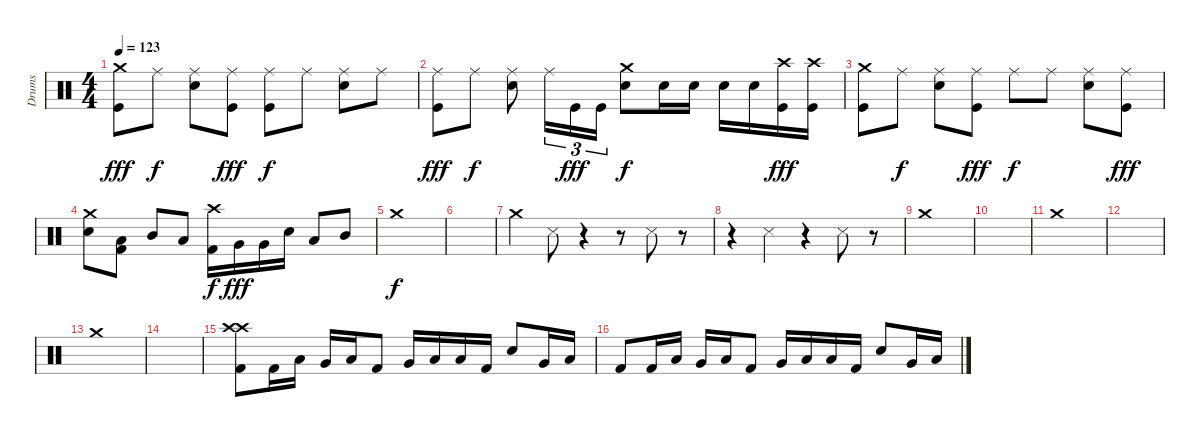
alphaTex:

\track ("Drums" "Drums") {instrument percussion}
\staff {score}
\articulation defaults
\ts (4 4)
\tempo 123
\clef neutral
\ks c
("Crash medium (hit)" "Kick (hit)").8{dy fff} "Ride (middle)".8{dy f} ("Ride (middle)" "Snare (hit) 2").8 ("Ride (middle)" "Kick (hit)").8{dy fff} ("Ride (middle)" "Kick (hit)").8{dy f} "Ride (middle)".8 ("Ride (middle)" "Snare (hit) 2").8 "Ride (middle)".8 |
("Ride (middle)" "Kick (hit)").8{dy fff} "Ride (middle)".8{dy f} ("Ride (middle)" "Snare (hit) 2").8 "Ride (middle)".16{tu (3 2)} "Kick (hit)".16{tu (3 2) dy fff} "Kick (hit)".16{tu (3 2)} ("Crash medium (hit)" "Electric Snare (hit)").8{dy f} "Electric Snare (hit)".16 "Electric Snare (hit)".16 "Electric Snare (hit)".16 "Electric Snare (hit)".16 ("Crash high (hit)" "Kick (hit)").16{dy fff} ("Crash high (hit)" "Kick (hit)").16 |
("Crash medium (hit)" "Kick (hit)").8 "Ride (middle)".8{dy f} ("Ride (middle)" "Electric Snare (hit)").8 ("Ride (middle)" "Kick (hit)").8{dy fff} "Ride (middle)".8{dy f} "Ride (middle)".8 ("Ride (middle)" "Electric Snare (hit)").8 ("Ride (middle)" "Kick (hit)").8{dy fff} |
("Crash medium (hit)" "Snare (hit) 2").8 ("Low Tom (hit)" "Kick (hit) 2").8 "Mid Tom (hit)".8 "Low Tom (hit)".8 ("Crash high (hit)" "Kick (hit) 2").16{dy f} "Very Low Tom (hit)".16{dy fff} "Very Low Tom (hit)".16 "Snare (hit) 2".16 "Low Tom (hit)".8 "Mid Tom (hit)".8 |
"Crash medium (hit)".1{dy f} |
|
"Crash medium (hit)".4 "Snare (side stick) 3".8 r.4 r.8 "Snare (side stick) 3".8 r.8 |
r.4 "Snare (side stick) 3".4 r.4 "Snare (side stick) 3".8 r.8 |
"Crash medium (hit)".1 |
|
"Crash medium (hit)".1 |
|
"Crash medium (hit)".1 |
|
("Crash high (hit)" "Crash high (hit)" "Kick (hit) 2").8 "Kick (hit) 2".16 "Low Tom (hit)".16 "Very Low Tom (hit)".16 "Low Tom (hit)".16 "Kick (hit) 2".8 "Very Low Tom (hit)".16 "Low Tom (hit)".16 "Low Floor Tom (hit)".16 "Kick (hit) 2".16 "Snare (hit) 2".8 "Very Low Tom (hit)".16 "Low Tom (hit)".16 |
"Kick (hit) 2".8 "Kick (hit) 2".16 "Low Tom (hit)".16 "Very Low Tom (hit)".16 "Low Tom (hit)".16 "Kick (hit) 2".8 "Very Low Tom (hit)".16 "Low Tom (hit)".16 "Low Floor Tom (hit)".16 "Kick (hit) 2".16 "Snare (hit) 2".8 "Very Low Tom (hit)".16 "Low Tom (hit)".16
